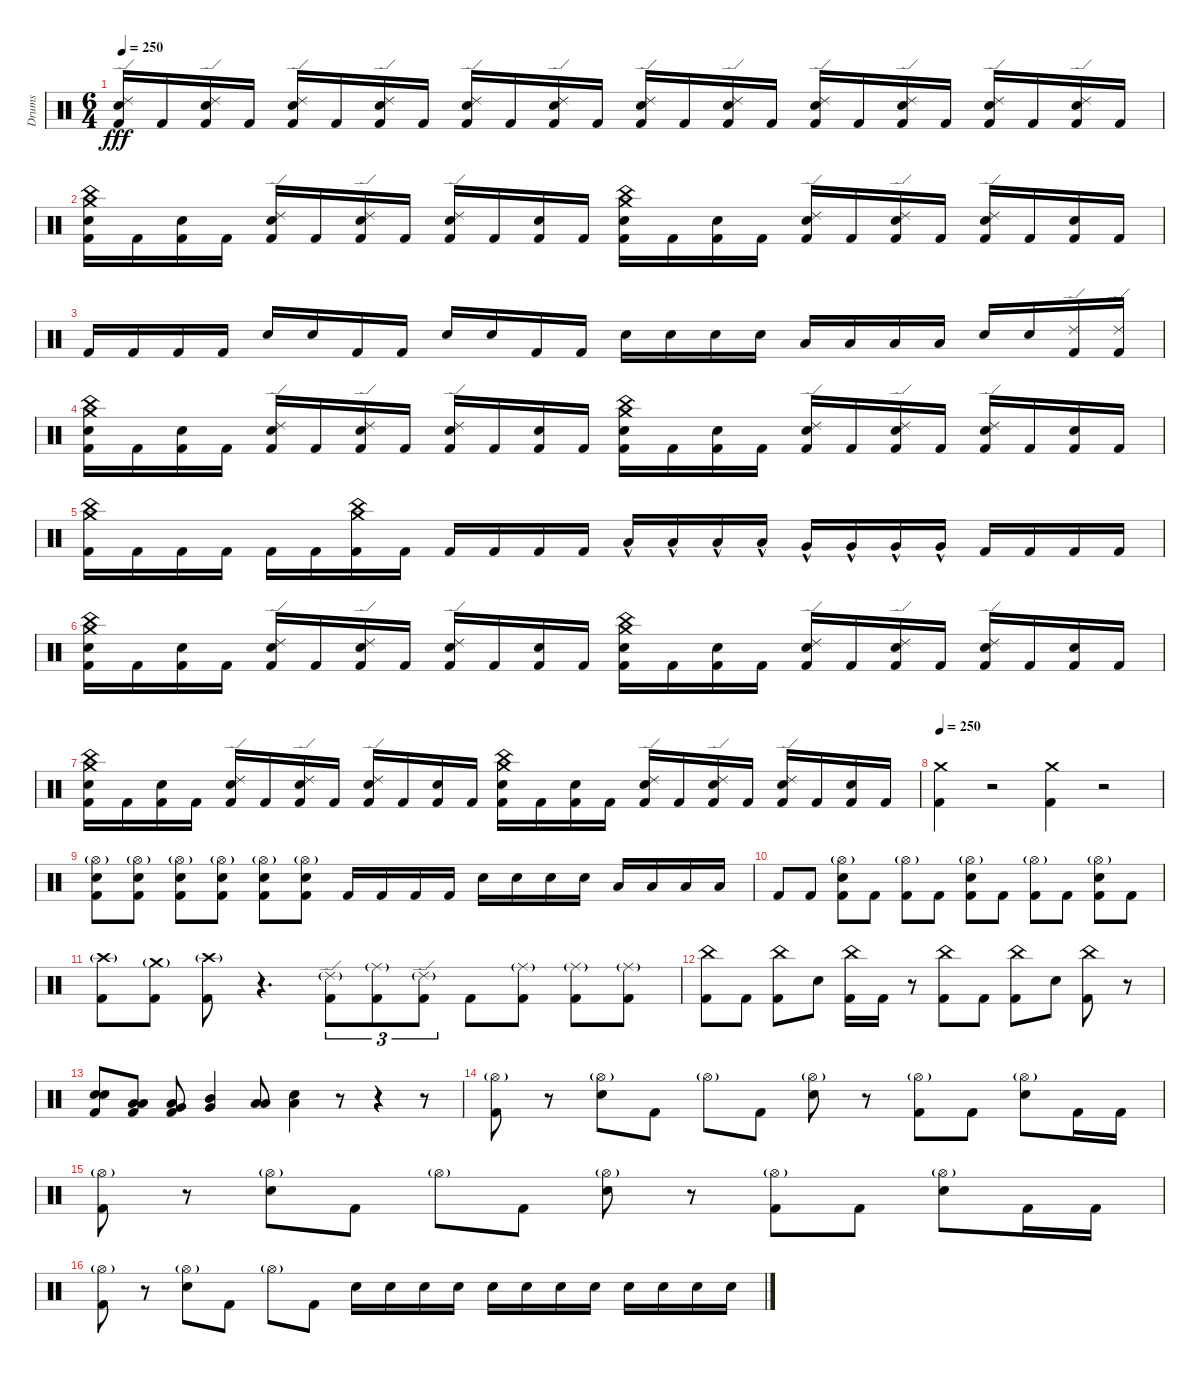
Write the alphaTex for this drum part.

\track ("Drums" "Drums") {instrument percussion}
\staff {score}
\articulation defaults
\ts (6 4)
\tempo 250
\clef neutral
\ks c
("Ride (edge) 2" "Electric Snare (hit)" "Kick (hit) 2").16{dy fff} "Kick (hit) 2".16 ("Ride (edge) 2" "Electric Snare (hit)" "Kick (hit) 2").16 "Kick (hit) 2".16 ("Ride (edge) 2" "Electric Snare (hit)" "Kick (hit) 2").16 "Kick (hit) 2".16 ("Ride (edge) 2" "Electric Snare (hit)" "Kick (hit) 2").16 "Kick (hit) 2".16 ("Ride (edge) 2" "Electric Snare (hit)" "Kick (hit) 2").16 "Kick (hit) 2".16 ("Ride (edge) 2" "Electric Snare (hit)" "Kick (hit) 2").16 "Kick (hit) 2".16 ("Ride (edge) 2" "Electric Snare (hit)" "Kick (hit) 2").16 "Kick (hit) 2".16 ("Ride (edge) 2" "Electric Snare (hit)" "Kick (hit) 2").16 "Kick (hit) 2".16 ("Ride (edge) 2" "Electric Snare (hit)" "Kick (hit) 2").16 "Kick (hit) 2".16 ("Ride (edge) 2" "Electric Snare (hit)" "Kick (hit) 2").16 "Kick (hit) 2".16 ("Ride (edge) 2" "Electric Snare (hit)" "Kick (hit) 2").16 "Kick (hit) 2".16 ("Ride (edge) 2" "Electric Snare (hit)" "Kick (hit) 2").16 "Kick (hit) 2".16 |
("China (hit)" "Crash medium (hit)" "Electric Snare (hit)" "Kick (hit) 2").16 "Kick (hit) 2".16 ("Electric Snare (hit)" "Kick (hit) 2").16 "Kick (hit) 2".16 ("Ride (edge) 2" "Electric Snare (hit)" "Kick (hit) 2").16 "Kick (hit) 2".16 ("Ride (edge) 2" "Electric Snare (hit)" "Kick (hit) 2").16 "Kick (hit) 2".16 ("Ride (edge) 2" "Electric Snare (hit)" "Kick (hit) 2").16 "Kick (hit) 2".16 ("Electric Snare (hit)" "Kick (hit) 2").16 "Kick (hit) 2".16 ("China (hit)" "Crash medium (hit)" "Electric Snare (hit)" "Kick (hit) 2").16 "Kick (hit) 2".16 ("Electric Snare (hit)" "Kick (hit) 2").16 "Kick (hit) 2".16 ("Ride (edge) 2" "Electric Snare (hit)" "Kick (hit) 2").16 "Kick (hit) 2".16 ("Ride (edge) 2" "Electric Snare (hit)" "Kick (hit) 2").16 "Kick (hit) 2".16 ("Ride (edge) 2" "Electric Snare (hit)" "Kick (hit) 2").16 "Kick (hit) 2".16 ("Electric Snare (hit)" "Kick (hit) 2").16 "Kick (hit) 2".16 |
"Kick (hit) 2".16 "Kick (hit) 2".16 "Kick (hit) 2".16 "Kick (hit) 2".16 "Electric Snare (hit)".16 "Electric Snare (hit)".16 "Kick (hit) 2".16 "Kick (hit) 2".16 "Electric Snare (hit)".16 "Electric Snare (hit)".16 "Kick (hit) 2".16 "Kick (hit) 2".16 "Electric Snare (hit)".16 "Electric Snare (hit)".16 "Electric Snare (hit)".16 "Electric Snare (hit)".16 "Low Tom (hit)".16 "Low Tom (hit)".16 "Low Tom (hit)".16 "Low Tom (hit)".16 "Electric Snare (hit)".16 "Electric Snare (hit)".16 ("Ride (edge) 2" "Kick (hit) 2").16 ("Ride (edge) 2" "Kick (hit) 2").16 |
("China (hit)" "Crash medium (hit)" "Electric Snare (hit)" "Kick (hit) 2").16 "Kick (hit) 2".16 ("Electric Snare (hit)" "Kick (hit) 2").16 "Kick (hit) 2".16 ("Ride (edge) 2" "Electric Snare (hit)" "Kick (hit) 2").16 "Kick (hit) 2".16 ("Ride (edge) 2" "Electric Snare (hit)" "Kick (hit) 2").16 "Kick (hit) 2".16 ("Ride (edge) 2" "Electric Snare (hit)" "Kick (hit) 2").16 "Kick (hit) 2".16 ("Electric Snare (hit)" "Kick (hit) 2").16 "Kick (hit) 2".16 ("China (hit)" "Crash medium (hit)" "Electric Snare (hit)" "Kick (hit) 2").16 "Kick (hit) 2".16 ("Electric Snare (hit)" "Kick (hit) 2").16 "Kick (hit) 2".16 ("Ride (edge) 2" "Electric Snare (hit)" "Kick (hit) 2").16 "Kick (hit) 2".16 ("Ride (edge) 2" "Electric Snare (hit)" "Kick (hit) 2").16 "Kick (hit) 2".16 ("Ride (edge) 2" "Electric Snare (hit)" "Kick (hit) 2").16 "Kick (hit) 2".16 ("Electric Snare (hit)" "Kick (hit) 2").16 "Kick (hit) 2".16 |
("China (hit)" "Crash medium (hit)" "Kick (hit) 2").16 "Kick (hit) 2".16 "Kick (hit) 2".16 "Kick (hit) 2".16 "Kick (hit) 2".16 "Kick (hit) 2".16 ("China (hit)" "Crash medium (hit)" "Kick (hit) 2").16 "Kick (hit) 2".16 "Kick (hit) 2".16 "Kick (hit) 2".16 "Kick (hit) 2".16 "Kick (hit) 2".16 "Low Tom (hit)"{hac}.16{volume 12} "Low Tom (hit)"{hac}.16 "Low Tom (hit)"{hac}.16 "Low Tom (hit)"{hac}.16 "Very Low Tom (hit)"{hac}.16 "Very Low Tom (hit)"{hac}.16 "Very Low Tom (hit)"{hac}.16 "Very Low Tom (hit)"{hac}.16 "Kick (hit) 2".16{volume 9} "Kick (hit) 2".16 "Kick (hit) 2".16 "Kick (hit) 2".16 |
("China (hit)" "Crash medium (hit)" "Electric Snare (hit)" "Kick (hit) 2").16 "Kick (hit) 2".16 ("Electric Snare (hit)" "Kick (hit) 2").16 "Kick (hit) 2".16 ("Ride (edge) 2" "Electric Snare (hit)" "Kick (hit) 2").16 "Kick (hit) 2".16 ("Ride (edge) 2" "Electric Snare (hit)" "Kick (hit) 2").16 "Kick (hit) 2".16 ("Ride (edge) 2" "Electric Snare (hit)" "Kick (hit) 2").16 "Kick (hit) 2".16 ("Electric Snare (hit)" "Kick (hit) 2").16 "Kick (hit) 2".16 ("China (hit)" "Crash medium (hit)" "Electric Snare (hit)" "Kick (hit) 2").16 "Kick (hit) 2".16 ("Electric Snare (hit)" "Kick (hit) 2").16 "Kick (hit) 2".16 ("Ride (edge) 2" "Electric Snare (hit)" "Kick (hit) 2").16 "Kick (hit) 2".16 ("Ride (edge) 2" "Electric Snare (hit)" "Kick (hit) 2").16 "Kick (hit) 2".16 ("Ride (edge) 2" "Electric Snare (hit)" "Kick (hit) 2").16 "Kick (hit) 2".16 ("Electric Snare (hit)" "Kick (hit) 2").16 "Kick (hit) 2".16 |
("China (hit)" "Crash medium (hit)" "Electric Snare (hit)" "Kick (hit) 2").16 "Kick (hit) 2".16 ("Electric Snare (hit)" "Kick (hit) 2").16 "Kick (hit) 2".16 ("Ride (edge) 2" "Electric Snare (hit)" "Kick (hit) 2").16 "Kick (hit) 2".16 ("Ride (edge) 2" "Electric Snare (hit)" "Kick (hit) 2").16 "Kick (hit) 2".16 ("Ride (edge) 2" "Electric Snare (hit)" "Kick (hit) 2").16 "Kick (hit) 2".16 ("Electric Snare (hit)" "Kick (hit) 2").16 "Kick (hit) 2".16 ("China (hit)" "Crash medium (hit)" "Electric Snare (hit)" "Kick (hit) 2").16 "Kick (hit) 2".16 ("Electric Snare (hit)" "Kick (hit) 2").16 "Kick (hit) 2".16 ("Ride (edge) 2" "Electric Snare (hit)" "Kick (hit) 2").16 "Kick (hit) 2".16 ("Ride (edge) 2" "Electric Snare (hit)" "Kick (hit) 2").16 "Kick (hit) 2".16 ("Ride (edge) 2" "Electric Snare (hit)" "Kick (hit) 2").16 "Kick (hit) 2".16 ("Electric Snare (hit)" "Kick (hit) 2").16 "Kick (hit) 2".16 |
\tempo 250
("Crash medium (hit)" "Kick (hit) 2").4 r.2{volume 0} ("Crash medium (hit)" "Kick (hit) 2").4{volume 10} r.2{volume 0} |
("Hi-Hat (open)"{g} "Electric Snare (hit)" "Kick (hit) 2").8{volume 10} ("Hi-Hat (open)"{g} "Electric Snare (hit)" "Kick (hit) 2").8 ("Hi-Hat (open)"{g} "Electric Snare (hit)" "Kick (hit) 2").8 ("Hi-Hat (open)"{g} "Electric Snare (hit)" "Kick (hit) 2").8 ("Hi-Hat (open)"{g} "Electric Snare (hit)" "Kick (hit) 2").8 ("Hi-Hat (open)"{g} "Electric Snare (hit)" "Kick (hit) 2").8 "Kick (hit) 2".16 "Kick (hit) 2".16 "Kick (hit) 2".16 "Kick (hit) 2".16 "Electric Snare (hit)".16 "Electric Snare (hit)".16 "Electric Snare (hit)".16 "Electric Snare (hit)".16 "Low Tom (hit)".16 "Low Tom (hit)".16 "Low Tom (hit)".16 "Low Tom (hit)".16 |
"Kick (hit) 2".8 "Kick (hit) 2".8 ("Hi-Hat (open)"{g} "Electric Snare (hit)" "Kick (hit) 2").8 "Kick (hit) 2".8 ("Hi-Hat (open)"{g} "Kick (hit) 2").8 "Kick (hit) 2".8 ("Hi-Hat (open)"{g} "Electric Snare (hit)" "Kick (hit) 2").8 "Kick (hit) 2".8 ("Hi-Hat (open)"{g} "Kick (hit) 2").8 "Kick (hit) 2".8 ("Hi-Hat (open)"{g} "Electric Snare (hit)" "Kick (hit) 2").8 "Kick (hit) 2".8 |
("Crash high (hit)"{g} "Kick (hit) 2").8 ("Crash medium (hit)"{g} "Kick (hit) 2").8 ("Crash high (hit)"{g} "Kick (hit) 2").8 r.4{d} ("Ride (edge) 2"{g} "Kick (hit) 2").8{tu (3 2)} ("Ride (middle)"{g} "Kick (hit) 2").8{tu (3 2)} ("Ride (edge) 2"{g} "Kick (hit) 2").8{tu (3 2)} "Kick (hit) 2".8 ("Ride (middle)"{g} "Kick (hit) 2").8 ("Ride (middle)"{g} "Kick (hit) 2").8 ("Ride (middle)"{g} "Kick (hit) 2").8 |
("China (hit)" "Kick (hit) 2").8 "Kick (hit) 2".8 ("China (hit)" "Kick (hit) 2").8 "Electric Snare (hit)".8 ("China (hit)" "Kick (hit) 2").16 "Kick (hit) 2".16 r.8 ("China (hit)" "Kick (hit) 2").8 "Kick (hit) 2".8 ("China (hit)" "Kick (hit) 2").8 "Electric Snare (hit)".8 ("China (hit)" "Kick (hit) 2").8 r.8 |
("Electric Snare (hit)" "Electric Snare (hit)" "Kick (hit) 2").8 ("Low Tom (hit)" "Low Tom (hit)" "Kick (hit) 2").8 ("Low Tom (hit)" "Very Low Tom (hit)" "Kick (hit) 2").8 ("Mid Tom (hit)" "Very Low Tom (hit)").4 ("Low Tom (hit)" "Low Tom (hit)").8 ("Electric Snare (hit)" "Low Tom (hit)").4 r.8 r.4 r.8 |
("Hi-Hat (open)"{g} "Kick (hit) 2").8 r.8 ("Hi-Hat (open)"{g} "Electric Snare (hit)").8 "Kick (hit) 2".8 "Hi-Hat (open)"{g}.8 "Kick (hit) 2".8 ("Hi-Hat (open)"{g} "Electric Snare (hit)").8 r.8 ("Hi-Hat (open)"{g} "Kick (hit) 2").8 "Kick (hit) 2".8 ("Hi-Hat (open)"{g} "Electric Snare (hit)").8 "Kick (hit) 2".16 "Kick (hit) 2".16 |
("Hi-Hat (open)"{g} "Kick (hit) 2").8 r.8 ("Hi-Hat (open)"{g} "Electric Snare (hit)").8 "Kick (hit) 2".8 "Hi-Hat (open)"{g}.8 "Kick (hit) 2".8 ("Hi-Hat (open)"{g} "Electric Snare (hit)").8 r.8 ("Hi-Hat (open)"{g} "Kick (hit) 2").8 "Kick (hit) 2".8 ("Hi-Hat (open)"{g} "Electric Snare (hit)").8 "Kick (hit) 2".16 "Kick (hit) 2".16 |
("Hi-Hat (open)"{g} "Kick (hit) 2").8 r.8 ("Hi-Hat (open)"{g} "Electric Snare (hit)").8 "Kick (hit) 2".8 "Hi-Hat (open)"{g}.8 "Kick (hit) 2".8 "Electric Snare (hit)".16 "Electric Snare (hit)".16 "Electric Snare (hit)".16 "Electric Snare (hit)".16 "Electric Snare (hit)".16 "Electric Snare (hit)".16 "Electric Snare (hit)".16 "Electric Snare (hit)".16 "Electric Snare (hit)".16 "Electric Snare (hit)".16 "Electric Snare (hit)".16 "Electric Snare (hit)".16
